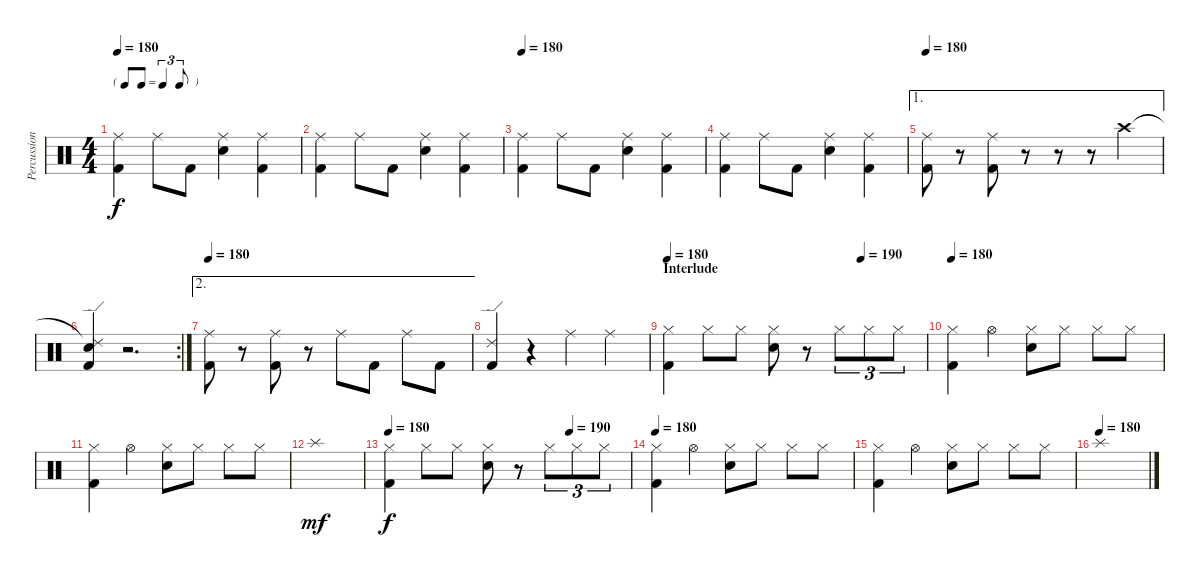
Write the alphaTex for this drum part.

\track ("Percussion" "Percussion") {instrument percussion}
\staff {score}
\articulation defaults
\ts (4 4)
\tf triplet8th
\tempo 180
\clef neutral
\ks c
("Ride (middle)" "Kick (hit) 2").4{dy f} "Ride (middle)".8 "Kick (hit) 2".8 ("Ride (middle)" "Electric Snare (hit)").4 ("Ride (middle)" "Kick (hit) 2").4 |
("Ride (middle)" "Kick (hit) 2").4 "Ride (middle)".8 "Kick (hit) 2".8 ("Ride (middle)" "Electric Snare (hit)").4 ("Ride (middle)" "Kick (hit) 2").4 |
\tempo 180
("Ride (middle)" "Kick (hit) 2").4 "Ride (middle)".8 "Kick (hit) 2".8 ("Ride (middle)" "Electric Snare (hit)").4 ("Ride (middle)" "Kick (hit) 2").4 |
("Ride (middle)" "Kick (hit) 2").4 "Ride (middle)".8 "Kick (hit) 2".8 ("Ride (middle)" "Electric Snare (hit)").4 ("Ride (middle)" "Kick (hit) 2").4 |
\ae 1
\tempo 180
("Ride (middle)" "Kick (hit) 2").8 r.8 ("Ride (middle)" "Kick (hit) 2").8 r.8 r.8 r.8 "Crash high (hit)".4 |
\rc 2
("Ride (edge) 2"{t} "Electric Snare (hit)" "Kick (hit) 2").4 r.2{d} |
\ae 2
\tempo 180
("Ride (middle)" "Kick (hit) 2").8 r.8 ("Ride (middle)" "Kick (hit) 2").8 r.8 "Ride (middle)".8 "Kick (hit) 2".8 "Ride (middle)".8 "Kick (hit) 2".8 |
("Ride (edge) 2" "Kick (hit) 2").4 r.4 "Ride (middle)".4 "Ride (middle)".4 |
\section ("" "Interlude")
\tempo 180
\tempo (190 0.75)
("Hi-Hat (closed)" "Kick (hit) 2").4 "Hi-Hat (closed)".8 "Hi-Hat (closed)".8 ("Hi-Hat (closed)" "Electric Snare (hit)").8 r.8 "Hi-Hat (closed)".8{tu (3 2)} "Hi-Hat (closed)".8{tu (3 2)} "Hi-Hat (closed)".8{tu (3 2)} |
\tempo 180
("Hi-Hat (closed)" "Kick (hit) 2").4 "Hi-Hat (open)".4 ("Hi-Hat (closed)" "Electric Snare (hit)").8 "Hi-Hat (closed)".8 "Hi-Hat (closed)".8 "Hi-Hat (closed)".8 |
("Hi-Hat (closed)" "Kick (hit) 2").4 "Hi-Hat (open)".4 ("Hi-Hat (closed)" "Electric Snare (hit)").8 "Hi-Hat (closed)".8 "Hi-Hat (closed)".8 "Hi-Hat (closed)".8 |
"Splash (hit)".1{dy mf} |
\tempo 180
\tempo (190 0.75)
("Hi-Hat (closed)" "Kick (hit) 2").4{dy f} "Hi-Hat (closed)".8 "Hi-Hat (closed)".8 ("Hi-Hat (closed)" "Electric Snare (hit)").8 r.8 "Hi-Hat (closed)".8{tu (3 2)} "Hi-Hat (closed)".8{tu (3 2)} "Hi-Hat (closed)".8{tu (3 2)} |
\tempo 180
("Hi-Hat (closed)" "Kick (hit) 2").4 "Hi-Hat (open)".4 ("Hi-Hat (closed)" "Electric Snare (hit)").8 "Hi-Hat (closed)".8 "Hi-Hat (closed)".8 "Hi-Hat (closed)".8 |
("Hi-Hat (closed)" "Kick (hit) 2").4 "Hi-Hat (open)".4 ("Hi-Hat (closed)" "Electric Snare (hit)").8 "Hi-Hat (closed)".8 "Hi-Hat (closed)".8 "Hi-Hat (closed)".8 |
\tempo (180)
"Splash (hit)".1
